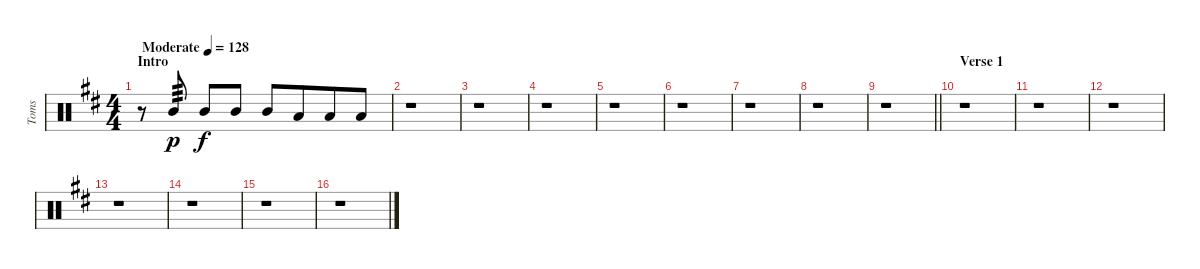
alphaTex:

\track ("Toms" "Toms") {instrument percussion}
\staff {score}
\articulation defaults
\ts (4 4)
\section ("" "Intro")
\tempo (128 "Moderate")
\clef neutral
\ks bminor
r.8{dy p volume 10} "Mid Tom (hit)".8{tp 3 beam Up} "Mid Tom (hit)".8{dy f beam Up} "Mid Tom (hit)".8{beam Up} "Mid Tom (hit)".8{beam Up} "Low Tom (hit)".8{beam Up beam merge} "Low Tom (hit)".8{beam Up} "Low Tom (hit)".8{beam Up} |
r.1 |
r.1 |
r.1 |
r.1 |
r.1 |
r.1 |
r.1 |
\barLineRight lightlight
r.1 |
\section ("" "Verse 1")
r.1 |
r.1 |
r.1 |
r.1 |
r.1 |
r.1 |
r.1
